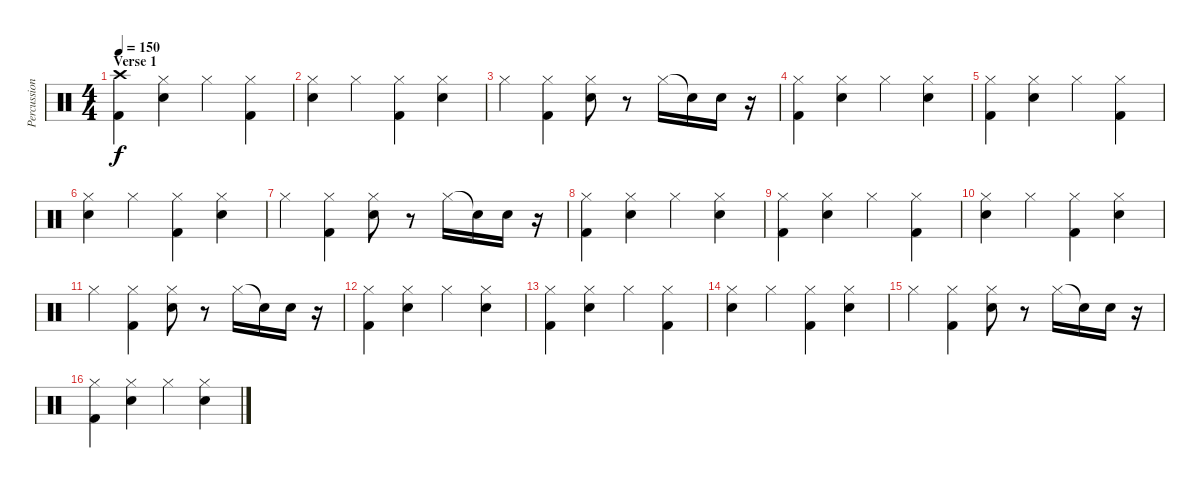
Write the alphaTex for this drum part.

\track ("Percussion" "Percussion") {instrument percussion}
\staff {score}
\articulation defaults
\ts (4 4)
\section ("" "Verse 1")
\tempo 150
\clef neutral
\ks c
("Crash high (hit)" "Kick (hit) 2").4{dy f} ("Electric Snare (hit)" "Hi-Hat (closed)").4 "Hi-Hat (closed)".4 ("Kick (hit) 2" "Hi-Hat (closed)").4 |
("Electric Snare (hit)" "Hi-Hat (closed)").4 "Hi-Hat (closed)".4 ("Kick (hit) 2" "Hi-Hat (closed)").4 ("Electric Snare (hit)" "Hi-Hat (closed)").4 |
"Hi-Hat (closed)".4 ("Kick (hit) 2" "Hi-Hat (closed)").4 ("Electric Snare (hit)" "Hi-Hat (closed)").8 r.8 "Hi-Hat (closed)".16 "Snare (hit)"{t}.16 "Electric Snare (hit)".16 r.16 |
("Hi-Hat (closed)" "Kick (hit) 2").4 ("Electric Snare (hit)" "Hi-Hat (closed)").4 "Hi-Hat (closed)".4 ("Electric Snare (hit)" "Hi-Hat (closed)").4 |
("Hi-Hat (closed)" "Kick (hit) 2").4 ("Electric Snare (hit)" "Hi-Hat (closed)").4 "Hi-Hat (closed)".4 ("Kick (hit) 2" "Hi-Hat (closed)").4 |
("Electric Snare (hit)" "Hi-Hat (closed)").4 "Hi-Hat (closed)".4 ("Kick (hit) 2" "Hi-Hat (closed)").4 ("Electric Snare (hit)" "Hi-Hat (closed)").4 |
"Hi-Hat (closed)".4 ("Kick (hit) 2" "Hi-Hat (closed)").4 ("Electric Snare (hit)" "Hi-Hat (closed)").8 r.8 "Hi-Hat (closed)".16 "Snare (hit)"{t}.16 "Electric Snare (hit)".16 r.16 |
("Hi-Hat (closed)" "Kick (hit) 2").4 ("Electric Snare (hit)" "Hi-Hat (closed)").4 "Hi-Hat (closed)".4 ("Electric Snare (hit)" "Hi-Hat (closed)").4 |
("Hi-Hat (closed)" "Kick (hit) 2").4 ("Electric Snare (hit)" "Hi-Hat (closed)").4 "Hi-Hat (closed)".4 ("Kick (hit) 2" "Hi-Hat (closed)").4 |
("Electric Snare (hit)" "Hi-Hat (closed)").4 "Hi-Hat (closed)".4 ("Kick (hit) 2" "Hi-Hat (closed)").4 ("Electric Snare (hit)" "Hi-Hat (closed)").4 |
"Hi-Hat (closed)".4 ("Kick (hit) 2" "Hi-Hat (closed)").4 ("Electric Snare (hit)" "Hi-Hat (closed)").8 r.8 "Hi-Hat (closed)".16 "Snare (hit)"{t}.16 "Electric Snare (hit)".16 r.16 |
("Hi-Hat (closed)" "Kick (hit) 2").4 ("Electric Snare (hit)" "Hi-Hat (closed)").4 "Hi-Hat (closed)".4 ("Electric Snare (hit)" "Hi-Hat (closed)").4 |
("Hi-Hat (closed)" "Kick (hit) 2").4 ("Electric Snare (hit)" "Hi-Hat (closed)").4 "Hi-Hat (closed)".4 ("Kick (hit) 2" "Hi-Hat (closed)").4 |
("Electric Snare (hit)" "Hi-Hat (closed)").4 "Hi-Hat (closed)".4 ("Kick (hit) 2" "Hi-Hat (closed)").4 ("Electric Snare (hit)" "Hi-Hat (closed)").4 |
"Hi-Hat (closed)".4 ("Kick (hit) 2" "Hi-Hat (closed)").4 ("Electric Snare (hit)" "Hi-Hat (closed)").8 r.8 "Hi-Hat (closed)".16 "Snare (hit)"{t}.16 "Electric Snare (hit)".16 r.16 |
("Hi-Hat (closed)" "Kick (hit) 2").4 ("Electric Snare (hit)" "Hi-Hat (closed)").4 "Hi-Hat (closed)".4 ("Electric Snare (hit)" "Hi-Hat (closed)").4
